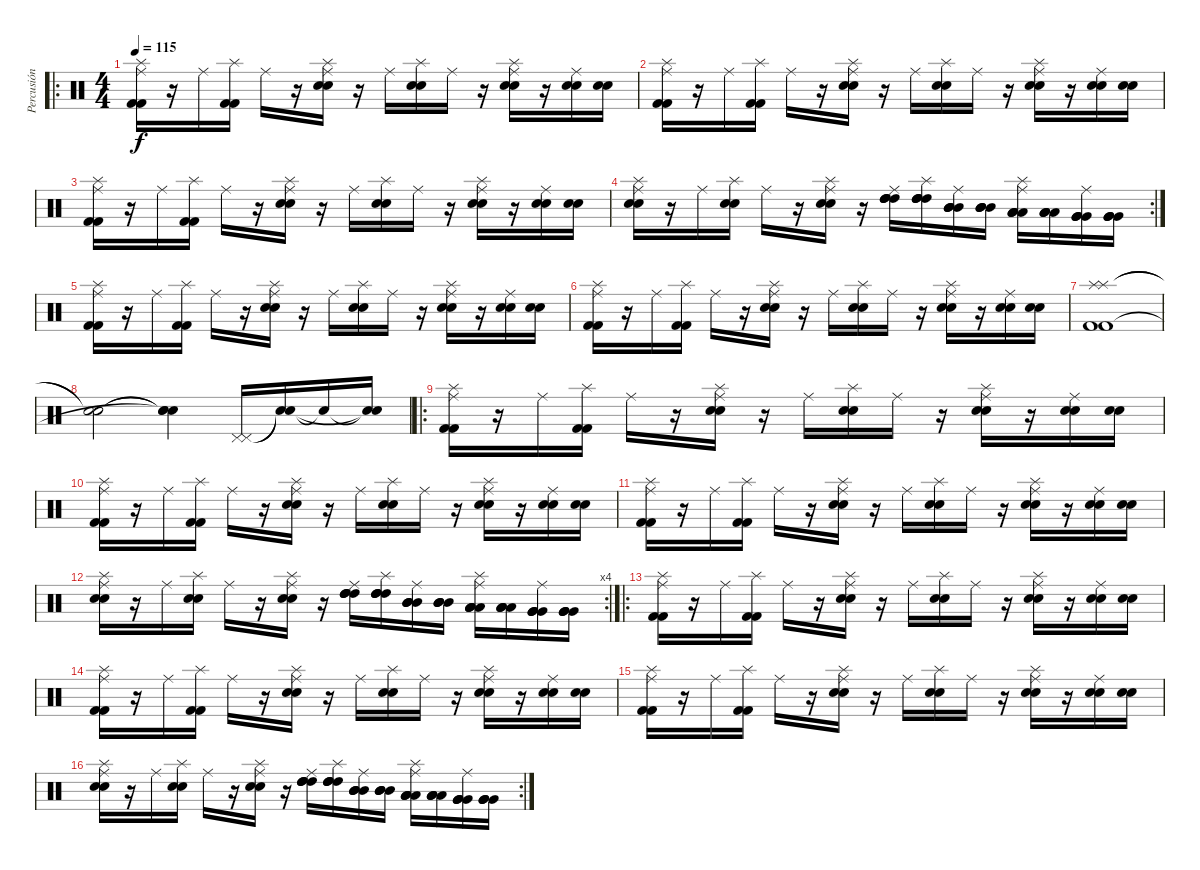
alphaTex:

\track ("Percusión" "Percusión") {instrument percussion}
\staff {score}
\articulation defaults
\ro
\ts (4 4)
\tempo 115
\clef neutral
\ks c
("Splash (hit)" "Ride (middle)" "Kick (hit) 2" "Kick (hit) 2").16{dy f} r.16 "Ride (middle)".16 ("Splash (hit)" "Kick (hit) 2" "Kick (hit) 2").16 "Ride (middle)".16 r.16 ("Splash (hit)" "Ride (middle)" "Electric Snare (hit)" "Electric Snare (hit)").16 r.16 "Ride (middle)".16 ("Splash (hit)" "Electric Snare (hit)" "Electric Snare (hit)").16 "Ride (middle)".16 r.16 ("Splash (hit)" "Ride (middle)" "Electric Snare (hit)" "Electric Snare (hit)").16 r.16 ("Ride (middle)" "Electric Snare (hit)" "Electric Snare (hit)").16 ("Electric Snare (hit)" "Electric Snare (hit)").16 |
("Splash (hit)" "Ride (middle)" "Kick (hit) 2" "Kick (hit) 2").16 r.16 "Ride (middle)".16 ("Splash (hit)" "Kick (hit) 2" "Kick (hit) 2").16 "Ride (middle)".16 r.16 ("Splash (hit)" "Ride (middle)" "Electric Snare (hit)" "Electric Snare (hit)").16 r.16 "Ride (middle)".16 ("Splash (hit)" "Electric Snare (hit)" "Electric Snare (hit)").16 "Ride (middle)".16 r.16 ("Splash (hit)" "Ride (middle)" "Electric Snare (hit)" "Electric Snare (hit)").16 r.16 ("Ride (middle)" "Electric Snare (hit)" "Electric Snare (hit)").16 ("Electric Snare (hit)" "Electric Snare (hit)").16 |
("Splash (hit)" "Ride (middle)" "Kick (hit) 2" "Kick (hit) 2").16 r.16 "Ride (middle)".16 ("Splash (hit)" "Kick (hit) 2" "Kick (hit) 2").16 "Ride (middle)".16 r.16 ("Splash (hit)" "Ride (middle)" "Electric Snare (hit)" "Electric Snare (hit)").16 r.16 "Ride (middle)".16 ("Splash (hit)" "Electric Snare (hit)" "Electric Snare (hit)").16 "Ride (middle)".16 r.16 ("Splash (hit)" "Ride (middle)" "Electric Snare (hit)" "Electric Snare (hit)").16 r.16 ("Ride (middle)" "Electric Snare (hit)" "Electric Snare (hit)").16 ("Electric Snare (hit)" "Electric Snare (hit)").16 |
\rc 2
("Splash (hit)" "Ride (middle)" "Electric Snare (hit)" "Electric Snare (hit)").16 r.16 "Ride (middle)".16 ("Splash (hit)" "Electric Snare (hit)" "Electric Snare (hit)").16 "Ride (middle)".16 r.16 ("Splash (hit)" "Ride (middle)" "Electric Snare (hit)" "Electric Snare (hit)").16 r.16 ("Ride (middle)" "High Tom (hit)" "High Tom (hit)" "High Tom (hit)" "High Tom (hit)").16 ("Splash (hit)" "High Tom (hit)" "High Tom (hit)" "High Tom (hit)" "High Tom (hit)").16 ("Ride (middle)" "Mid Tom (hit)" "Mid Tom (hit)" "Mid Tom (hit)" "Mid Tom (hit)").16 ("Mid Tom (hit)" "Mid Tom (hit)" "Mid Tom (hit)" "Mid Tom (hit)").16 ("Splash (hit)" "Ride (middle)" "Low Tom (hit)" "Low Tom (hit)" "Low Tom (hit)" "Low Tom (hit)").16 ("Low Tom (hit)" "Low Tom (hit)" "Low Tom (hit)" "Low Tom (hit)").16 ("Ride (middle)" "Very Low Tom (hit)" "Very Low Tom (hit)" "Very Low Tom (hit)" "Very Low Tom (hit)").16 ("Very Low Tom (hit)" "Very Low Tom (hit)" "Very Low Tom (hit)" "Very Low Tom (hit)").16 |
("Splash (hit)" "Ride (middle)" "Kick (hit) 2" "Kick (hit) 2").16 r.16 "Ride (middle)".16 ("Splash (hit)" "Kick (hit) 2" "Kick (hit) 2").16 "Ride (middle)".16 r.16 ("Splash (hit)" "Ride (middle)" "Electric Snare (hit)" "Electric Snare (hit)").16 r.16 "Ride (middle)".16 ("Splash (hit)" "Electric Snare (hit)" "Electric Snare (hit)").16 "Ride (middle)".16 r.16 ("Splash (hit)" "Ride (middle)" "Electric Snare (hit)" "Electric Snare (hit)").16 r.16 ("Ride (middle)" "Electric Snare (hit)" "Electric Snare (hit)").16 ("Electric Snare (hit)" "Electric Snare (hit)").16 |
("Splash (hit)" "Ride (middle)" "Kick (hit) 2" "Kick (hit) 2").16 r.16 "Ride (middle)".16 ("Splash (hit)" "Kick (hit) 2" "Kick (hit) 2").16 "Ride (middle)".16 r.16 ("Splash (hit)" "Ride (middle)" "Electric Snare (hit)" "Electric Snare (hit)").16 r.16 "Ride (middle)".16 ("Splash (hit)" "Electric Snare (hit)" "Electric Snare (hit)").16 "Ride (middle)".16 r.16 ("Splash (hit)" "Ride (middle)" "Electric Snare (hit)" "Electric Snare (hit)").16 r.16 ("Ride (middle)" "Electric Snare (hit)" "Electric Snare (hit)").16 ("Electric Snare (hit)" "Electric Snare (hit)").16 |
("Splash (hit)" "Splash (hit)" "Kick (hit) 2" "Kick (hit) 2").1 |
("Snare (hit)"{t} "Snare (hit)"{t}).2 ("Snare (hit)"{t} "Snare (hit)"{t} "Snare (hit)"{t}).4 ("Pedal Hi-Hat (hit)" "Pedal Hi-Hat (hit)").16 ("Snare (hit)"{t} "Snare (hit)"{t}).16 "Snare (hit)"{t}.16 ("Snare (hit)"{t} "Snare (hit)"{t}).16 |
\ro
("Splash (hit)" "Ride (middle)" "Kick (hit) 2" "Kick (hit) 2").16 r.16 "Ride (middle)".16 ("Splash (hit)" "Kick (hit) 2" "Kick (hit) 2").16 "Ride (middle)".16 r.16 ("Splash (hit)" "Ride (middle)" "Electric Snare (hit)" "Electric Snare (hit)").16 r.16 "Ride (middle)".16 ("Splash (hit)" "Electric Snare (hit)" "Electric Snare (hit)").16 "Ride (middle)".16 r.16 ("Splash (hit)" "Ride (middle)" "Electric Snare (hit)" "Electric Snare (hit)").16 r.16 ("Ride (middle)" "Electric Snare (hit)" "Electric Snare (hit)").16 ("Electric Snare (hit)" "Electric Snare (hit)").16 |
("Splash (hit)" "Ride (middle)" "Kick (hit) 2" "Kick (hit) 2").16 r.16 "Ride (middle)".16 ("Splash (hit)" "Kick (hit) 2" "Kick (hit) 2").16 "Ride (middle)".16 r.16 ("Splash (hit)" "Ride (middle)" "Electric Snare (hit)" "Electric Snare (hit)").16 r.16 "Ride (middle)".16 ("Splash (hit)" "Electric Snare (hit)" "Electric Snare (hit)").16 "Ride (middle)".16 r.16 ("Splash (hit)" "Ride (middle)" "Electric Snare (hit)" "Electric Snare (hit)").16 r.16 ("Ride (middle)" "Electric Snare (hit)" "Electric Snare (hit)").16 ("Electric Snare (hit)" "Electric Snare (hit)").16 |
("Splash (hit)" "Ride (middle)" "Kick (hit) 2" "Kick (hit) 2").16 r.16 "Ride (middle)".16 ("Splash (hit)" "Kick (hit) 2" "Kick (hit) 2").16 "Ride (middle)".16 r.16 ("Splash (hit)" "Ride (middle)" "Electric Snare (hit)" "Electric Snare (hit)").16 r.16 "Ride (middle)".16 ("Splash (hit)" "Electric Snare (hit)" "Electric Snare (hit)").16 "Ride (middle)".16 r.16 ("Splash (hit)" "Ride (middle)" "Electric Snare (hit)" "Electric Snare (hit)").16 r.16 ("Ride (middle)" "Electric Snare (hit)" "Electric Snare (hit)").16 ("Electric Snare (hit)" "Electric Snare (hit)").16 |
\rc 4
("Splash (hit)" "Ride (middle)" "Electric Snare (hit)" "Electric Snare (hit)").16 r.16 "Ride (middle)".16 ("Splash (hit)" "Electric Snare (hit)" "Electric Snare (hit)").16 "Ride (middle)".16 r.16 ("Splash (hit)" "Ride (middle)" "Electric Snare (hit)" "Electric Snare (hit)").16 r.16 ("Ride (middle)" "High Tom (hit)" "High Tom (hit)" "High Tom (hit)" "High Tom (hit)").16 ("Splash (hit)" "High Tom (hit)" "High Tom (hit)" "High Tom (hit)" "High Tom (hit)").16 ("Ride (middle)" "Mid Tom (hit)" "Mid Tom (hit)" "Mid Tom (hit)" "Mid Tom (hit)").16 ("Mid Tom (hit)" "Mid Tom (hit)" "Mid Tom (hit)" "Mid Tom (hit)").16 ("Splash (hit)" "Ride (middle)" "Low Tom (hit)" "Low Tom (hit)" "Low Tom (hit)" "Low Tom (hit)").16 ("Low Tom (hit)" "Low Tom (hit)" "Low Tom (hit)" "Low Tom (hit)").16 ("Ride (middle)" "Very Low Tom (hit)" "Very Low Tom (hit)" "Very Low Tom (hit)" "Very Low Tom (hit)").16 ("Very Low Tom (hit)" "Very Low Tom (hit)" "Very Low Tom (hit)" "Very Low Tom (hit)").16 |
\ro
("Splash (hit)" "Ride (middle)" "Kick (hit) 2" "Kick (hit) 2").16 r.16 "Ride (middle)".16 ("Splash (hit)" "Kick (hit) 2" "Kick (hit) 2").16 "Ride (middle)".16 r.16 ("Splash (hit)" "Ride (middle)" "Electric Snare (hit)" "Electric Snare (hit)").16 r.16 "Ride (middle)".16 ("Splash (hit)" "Electric Snare (hit)" "Electric Snare (hit)").16 "Ride (middle)".16 r.16 ("Splash (hit)" "Ride (middle)" "Electric Snare (hit)" "Electric Snare (hit)").16 r.16 ("Ride (middle)" "Electric Snare (hit)" "Electric Snare (hit)").16 ("Electric Snare (hit)" "Electric Snare (hit)").16 |
("Splash (hit)" "Ride (middle)" "Kick (hit) 2" "Kick (hit) 2").16 r.16 "Ride (middle)".16 ("Splash (hit)" "Kick (hit) 2" "Kick (hit) 2").16 "Ride (middle)".16 r.16 ("Splash (hit)" "Ride (middle)" "Electric Snare (hit)" "Electric Snare (hit)").16 r.16 "Ride (middle)".16 ("Splash (hit)" "Electric Snare (hit)" "Electric Snare (hit)").16 "Ride (middle)".16 r.16 ("Splash (hit)" "Ride (middle)" "Electric Snare (hit)" "Electric Snare (hit)").16 r.16 ("Ride (middle)" "Electric Snare (hit)" "Electric Snare (hit)").16 ("Electric Snare (hit)" "Electric Snare (hit)").16 |
("Splash (hit)" "Ride (middle)" "Kick (hit) 2" "Kick (hit) 2").16 r.16 "Ride (middle)".16 ("Splash (hit)" "Kick (hit) 2" "Kick (hit) 2").16 "Ride (middle)".16 r.16 ("Splash (hit)" "Ride (middle)" "Electric Snare (hit)" "Electric Snare (hit)").16 r.16 "Ride (middle)".16 ("Splash (hit)" "Electric Snare (hit)" "Electric Snare (hit)").16 "Ride (middle)".16 r.16 ("Splash (hit)" "Ride (middle)" "Electric Snare (hit)" "Electric Snare (hit)").16 r.16 ("Ride (middle)" "Electric Snare (hit)" "Electric Snare (hit)").16 ("Electric Snare (hit)" "Electric Snare (hit)").16 |
\rc 2
("Splash (hit)" "Ride (middle)" "Electric Snare (hit)" "Electric Snare (hit)").16 r.16 "Ride (middle)".16 ("Splash (hit)" "Electric Snare (hit)" "Electric Snare (hit)").16 "Ride (middle)".16 r.16 ("Splash (hit)" "Ride (middle)" "Electric Snare (hit)" "Electric Snare (hit)").16 r.16 ("Ride (middle)" "High Tom (hit)" "High Tom (hit)" "High Tom (hit)" "High Tom (hit)").16 ("Splash (hit)" "High Tom (hit)" "High Tom (hit)" "High Tom (hit)" "High Tom (hit)").16 ("Ride (middle)" "Mid Tom (hit)" "Mid Tom (hit)" "Mid Tom (hit)" "Mid Tom (hit)").16 ("Mid Tom (hit)" "Mid Tom (hit)" "Mid Tom (hit)" "Mid Tom (hit)").16 ("Splash (hit)" "Ride (middle)" "Low Tom (hit)" "Low Tom (hit)" "Low Tom (hit)" "Low Tom (hit)").16 ("Low Tom (hit)" "Low Tom (hit)" "Low Tom (hit)" "Low Tom (hit)").16 ("Ride (middle)" "Very Low Tom (hit)" "Very Low Tom (hit)" "Very Low Tom (hit)" "Very Low Tom (hit)").16 ("Very Low Tom (hit)" "Very Low Tom (hit)" "Very Low Tom (hit)" "Very Low Tom (hit)").16
